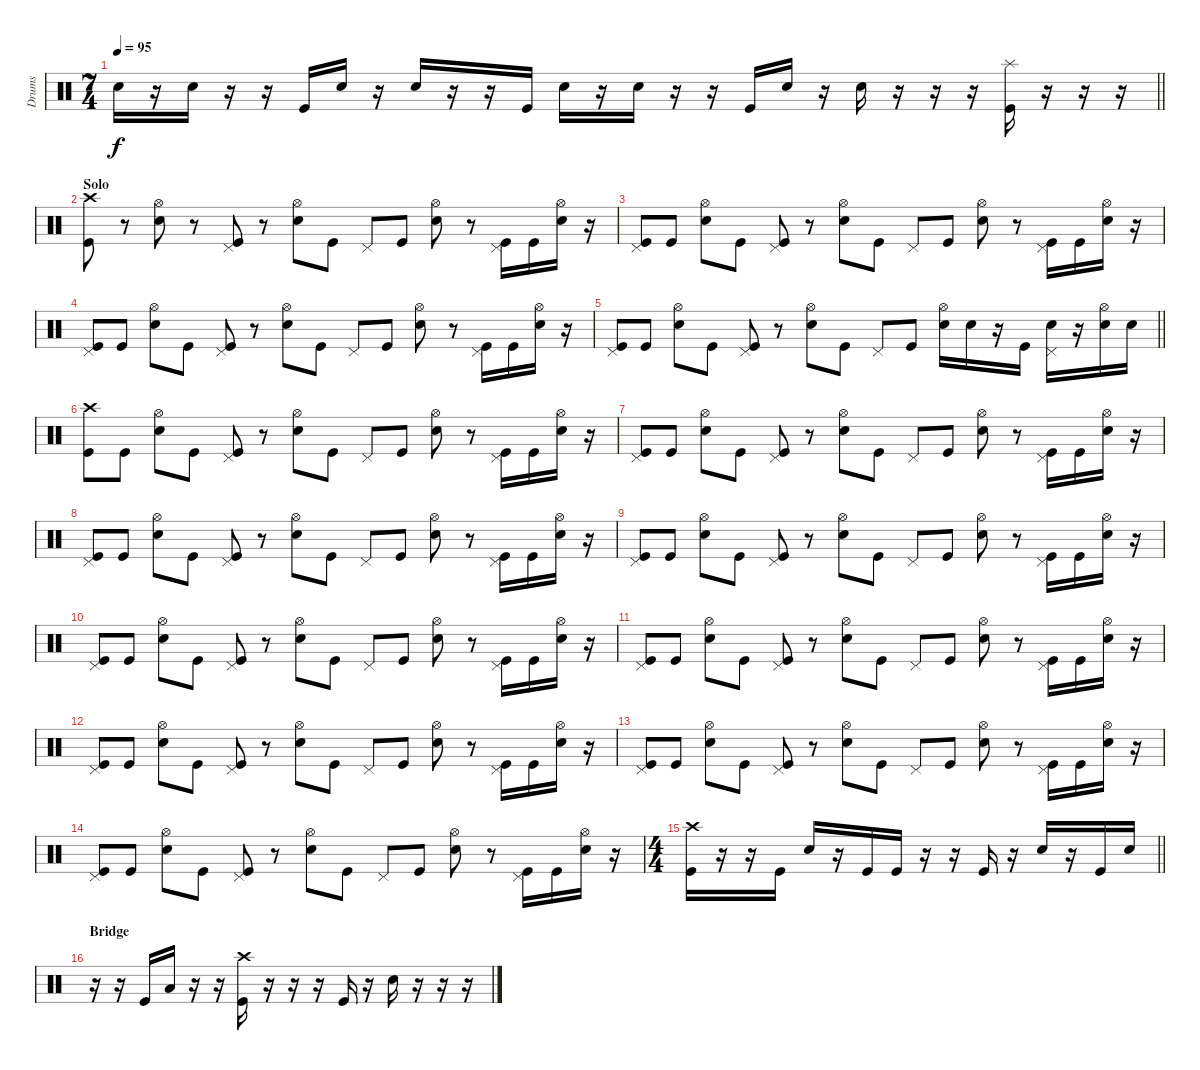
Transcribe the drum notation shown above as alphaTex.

\track ("Drums" "Drums") {instrument percussion}
\staff {score}
\articulation defaults
\ts (7 4)
\tempo 95
\clef neutral
\barLineRight lightlight
\ks c "Electric Snare (hit)".16{dy f}
r.16 "Electric Snare (hit)".16 r.16 r.16 "Kick (hit)".16 "Electric Snare (hit)".16 r.16 "Electric Snare (hit)".16 r.16 r.16 "Kick (hit)".16 "Electric Snare (hit)".16 r.16 "Electric Snare (hit)".16 r.16 r.16 "Kick (hit)".16 "Electric Snare (hit)".16 r.16 "Electric Snare (hit)".16 r.16 r.16 r.16 ("Splash (hit)" "Kick (hit)").16 r.16 r.16 r.16 |
\section ("" "Solo")
("Crash high (hit)" "Kick (hit)").8 r.8 ("Hi-Hat (open)" "Electric Snare (hit)").8 r.8 ("Pedal Hi-Hat (hit)" "Kick (hit)").8 r.8 ("Hi-Hat (open)" "Electric Snare (hit)").8 "Kick (hit)".8 "Pedal Hi-Hat (hit)".8 "Kick (hit)".8 ("Hi-Hat (open)" "Electric Snare (hit)").8 r.8 ("Pedal Hi-Hat (hit)" "Kick (hit)").16 "Kick (hit)".16 ("Hi-Hat (open)" "Electric Snare (hit)").16 r.16 |
("Pedal Hi-Hat (hit)" "Kick (hit)").8 "Kick (hit)".8 ("Hi-Hat (open)" "Electric Snare (hit)").8 "Kick (hit)".8 ("Pedal Hi-Hat (hit)" "Kick (hit)").8 r.8 ("Hi-Hat (open)" "Electric Snare (hit)").8 "Kick (hit)".8 "Pedal Hi-Hat (hit)".8 "Kick (hit)".8 ("Hi-Hat (open)" "Electric Snare (hit)").8 r.8 ("Pedal Hi-Hat (hit)" "Kick (hit)").16 "Kick (hit)".16 ("Hi-Hat (open)" "Electric Snare (hit)").16 r.16 |
("Pedal Hi-Hat (hit)" "Kick (hit)").8 "Kick (hit)".8 ("Hi-Hat (open)" "Electric Snare (hit)").8 "Kick (hit)".8 ("Pedal Hi-Hat (hit)" "Kick (hit)").8 r.8 ("Hi-Hat (open)" "Electric Snare (hit)").8 "Kick (hit)".8 "Pedal Hi-Hat (hit)".8 "Kick (hit)".8 ("Hi-Hat (open)" "Electric Snare (hit)").8 r.8 ("Pedal Hi-Hat (hit)" "Kick (hit)").16 "Kick (hit)".16 ("Hi-Hat (open)" "Electric Snare (hit)").16 r.16 |
\barLineRight lightlight
("Pedal Hi-Hat (hit)" "Kick (hit)").8 "Kick (hit)".8 ("Hi-Hat (open)" "Electric Snare (hit)").8 "Kick (hit)".8 ("Pedal Hi-Hat (hit)" "Kick (hit)").8 r.8 ("Hi-Hat (open)" "Electric Snare (hit)").8 "Kick (hit)".8 "Pedal Hi-Hat (hit)".8 "Kick (hit)".8 ("Hi-Hat (open)" "Electric Snare (hit)").16 "Electric Snare (hit)".16 r.16 "Kick (hit)".16 ("Pedal Hi-Hat (hit)" "Electric Snare (hit)").16 r.16 ("Hi-Hat (open)" "Electric Snare (hit)").16 "Electric Snare (hit)".16 |
("Crash high (hit)" "Kick (hit)").8 "Kick (hit)".8 ("Hi-Hat (open)" "Electric Snare (hit)").8 "Kick (hit)".8 ("Pedal Hi-Hat (hit)" "Kick (hit)").8 r.8 ("Hi-Hat (open)" "Electric Snare (hit)").8 "Kick (hit)".8 "Pedal Hi-Hat (hit)".8 "Kick (hit)".8 ("Hi-Hat (open)" "Electric Snare (hit)").8 r.8 ("Pedal Hi-Hat (hit)" "Kick (hit)").16 "Kick (hit)".16 ("Hi-Hat (open)" "Electric Snare (hit)").16 r.16 |
("Pedal Hi-Hat (hit)" "Kick (hit)").8 "Kick (hit)".8 ("Hi-Hat (open)" "Electric Snare (hit)").8 "Kick (hit)".8 ("Pedal Hi-Hat (hit)" "Kick (hit)").8 r.8 ("Hi-Hat (open)" "Electric Snare (hit)").8 "Kick (hit)".8 "Pedal Hi-Hat (hit)".8 "Kick (hit)".8 ("Hi-Hat (open)" "Electric Snare (hit)").8 r.8 ("Pedal Hi-Hat (hit)" "Kick (hit)").16 "Kick (hit)".16 ("Hi-Hat (open)" "Electric Snare (hit)").16 r.16 |
("Pedal Hi-Hat (hit)" "Kick (hit)").8 "Kick (hit)".8 ("Hi-Hat (open)" "Electric Snare (hit)").8 "Kick (hit)".8 ("Pedal Hi-Hat (hit)" "Kick (hit)").8 r.8 ("Hi-Hat (open)" "Electric Snare (hit)").8 "Kick (hit)".8 "Pedal Hi-Hat (hit)".8 "Kick (hit)".8 ("Hi-Hat (open)" "Electric Snare (hit)").8 r.8 ("Pedal Hi-Hat (hit)" "Kick (hit)").16 "Kick (hit)".16 ("Hi-Hat (open)" "Electric Snare (hit)").16 r.16 |
("Pedal Hi-Hat (hit)" "Kick (hit)").8 "Kick (hit)".8 ("Hi-Hat (open)" "Electric Snare (hit)").8 "Kick (hit)".8 ("Pedal Hi-Hat (hit)" "Kick (hit)").8 r.8 ("Hi-Hat (open)" "Electric Snare (hit)").8 "Kick (hit)".8 "Pedal Hi-Hat (hit)".8 "Kick (hit)".8 ("Hi-Hat (open)" "Electric Snare (hit)").8 r.8 ("Pedal Hi-Hat (hit)" "Kick (hit)").16 "Kick (hit)".16 ("Hi-Hat (open)" "Electric Snare (hit)").16 r.16 |
("Pedal Hi-Hat (hit)" "Kick (hit)").8 "Kick (hit)".8 ("Hi-Hat (open)" "Electric Snare (hit)").8 "Kick (hit)".8 ("Pedal Hi-Hat (hit)" "Kick (hit)").8 r.8 ("Hi-Hat (open)" "Electric Snare (hit)").8 "Kick (hit)".8 "Pedal Hi-Hat (hit)".8 "Kick (hit)".8 ("Hi-Hat (open)" "Electric Snare (hit)").8 r.8 ("Pedal Hi-Hat (hit)" "Kick (hit)").16 "Kick (hit)".16 ("Hi-Hat (open)" "Electric Snare (hit)").16 r.16 |
("Pedal Hi-Hat (hit)" "Kick (hit)").8 "Kick (hit)".8 ("Hi-Hat (open)" "Electric Snare (hit)").8 "Kick (hit)".8 ("Pedal Hi-Hat (hit)" "Kick (hit)").8 r.8 ("Hi-Hat (open)" "Electric Snare (hit)").8 "Kick (hit)".8 "Pedal Hi-Hat (hit)".8 "Kick (hit)".8 ("Hi-Hat (open)" "Electric Snare (hit)").8 r.8 ("Pedal Hi-Hat (hit)" "Kick (hit)").16 "Kick (hit)".16 ("Hi-Hat (open)" "Electric Snare (hit)").16 r.16 |
("Pedal Hi-Hat (hit)" "Kick (hit)").8 "Kick (hit)".8 ("Hi-Hat (open)" "Electric Snare (hit)").8 "Kick (hit)".8 ("Pedal Hi-Hat (hit)" "Kick (hit)").8 r.8 ("Hi-Hat (open)" "Electric Snare (hit)").8 "Kick (hit)".8 "Pedal Hi-Hat (hit)".8 "Kick (hit)".8 ("Hi-Hat (open)" "Electric Snare (hit)").8 r.8 ("Pedal Hi-Hat (hit)" "Kick (hit)").16 "Kick (hit)".16 ("Hi-Hat (open)" "Electric Snare (hit)").16 r.16 |
("Pedal Hi-Hat (hit)" "Kick (hit)").8 "Kick (hit)".8 ("Hi-Hat (open)" "Electric Snare (hit)").8 "Kick (hit)".8 ("Pedal Hi-Hat (hit)" "Kick (hit)").8 r.8 ("Hi-Hat (open)" "Electric Snare (hit)").8 "Kick (hit)".8 "Pedal Hi-Hat (hit)".8 "Kick (hit)".8 ("Hi-Hat (open)" "Electric Snare (hit)").8 r.8 ("Pedal Hi-Hat (hit)" "Kick (hit)").16 "Kick (hit)".16 ("Hi-Hat (open)" "Electric Snare (hit)").16 r.16 |
("Pedal Hi-Hat (hit)" "Kick (hit)").8 "Kick (hit)".8 ("Hi-Hat (open)" "Electric Snare (hit)").8 "Kick (hit)".8 ("Pedal Hi-Hat (hit)" "Kick (hit)").8 r.8 ("Hi-Hat (open)" "Electric Snare (hit)").8 "Kick (hit)".8 "Pedal Hi-Hat (hit)".8 "Kick (hit)".8 ("Hi-Hat (open)" "Electric Snare (hit)").8 r.8 ("Pedal Hi-Hat (hit)" "Kick (hit)").16 "Kick (hit)".16 ("Hi-Hat (open)" "Electric Snare (hit)").16 r.16 |
\ts (4 4)
\barLineRight lightlight
("Crash high (hit)" "Kick (hit)").16 r.16 r.16 "Kick (hit)".16 "Electric Snare (hit)".16 r.16 "Kick (hit)".16 "Kick (hit)".16 r.16 r.16 "Kick (hit)".16 r.16 "Electric Snare (hit)".16 r.16 "Kick (hit)".16 "Electric Snare (hit)".16 |
\section ("" "Bridge")
r.16 r.16 "Kick (hit)".16 "Low Tom (hit)".16 r.16 r.16 ("Crash high (hit)" "Kick (hit)").16 r.16 r.16 r.16 "Kick (hit)".16 r.16 "Electric Snare (hit)".16 r.16 r.16 r.16
